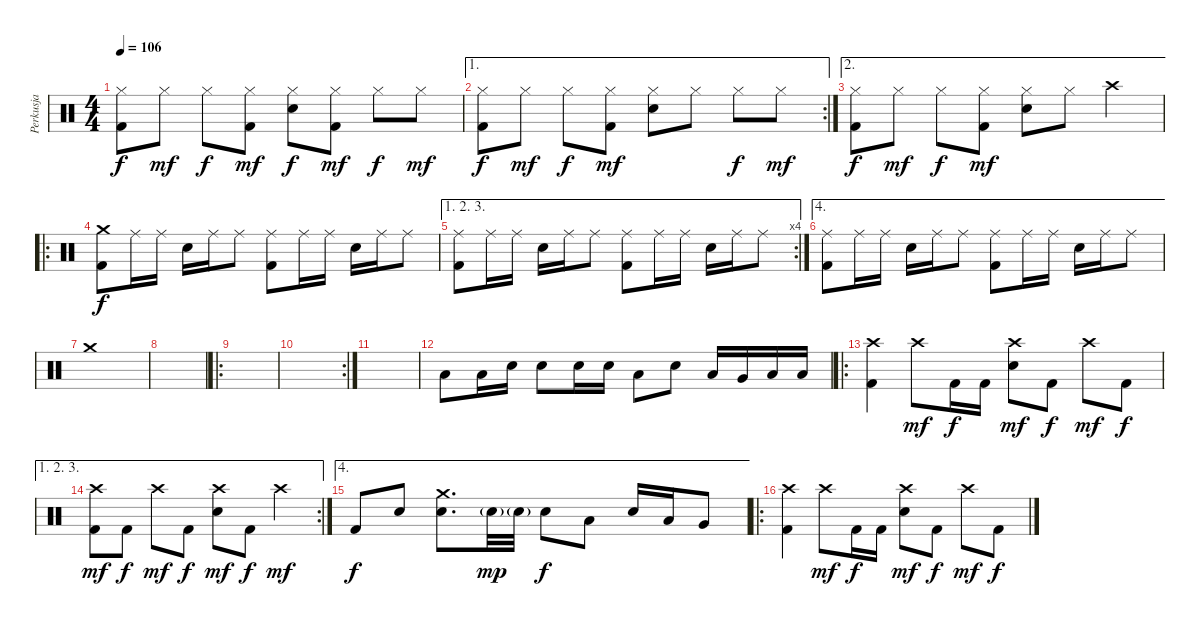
\track ("Perkusja" "Perkusja") {instrument percussion}
\staff {score}
\articulation defaults
\ts (4 4)
\tempo 106
\clef neutral
\ks c
("Hi-Hat (closed)" "Kick (hit) 2").8{dy f} "Hi-Hat (closed)".8{dy mf} "Hi-Hat (closed)".8{dy f} ("Hi-Hat (closed)" "Kick (hit) 2").8{dy mf} ("Hi-Hat (closed)" "Electric Snare (hit)").8{dy f} ("Hi-Hat (closed)" "Kick (hit) 2").8{dy mf} "Hi-Hat (closed)".8{dy f} "Hi-Hat (closed)".8{dy mf} |
\ae 1
\rc 2
("Hi-Hat (closed)" "Kick (hit) 2").8{dy f} "Hi-Hat (closed)".8{dy mf} "Hi-Hat (closed)".8{dy f} ("Hi-Hat (closed)" "Kick (hit) 2").8{dy mf} ("Hi-Hat (closed)" "Electric Snare (hit)").8 "Hi-Hat (closed)".8 "Hi-Hat (closed)".8{dy f} "Hi-Hat (closed)".8{dy mf} |
\ae 2
("Hi-Hat (closed)" "Kick (hit) 2").8{dy f} "Hi-Hat (closed)".8{dy mf} "Hi-Hat (closed)".8{dy f} ("Hi-Hat (closed)" "Kick (hit) 2").8{dy mf} ("Hi-Hat (closed)" "Electric Snare (hit)").8 "Hi-Hat (closed)".8 "Crash high (hit)".4 |
\ro
("Crash medium (hit)" "Kick (hit) 2").8{dy f} "Ride (middle)".16 "Ride (middle)".16 "Electric Snare (hit)".16 "Ride (middle)".16 "Ride (middle)".8 ("Ride (middle)" "Kick (hit) 2").8 "Ride (middle)".16 "Ride (middle)".16 "Electric Snare (hit)".16 "Ride (middle)".16 "Ride (middle)".8 |
\ae (1 2 3)
\rc 4
("Ride (middle)" "Kick (hit) 2").8 "Ride (middle)".16 "Ride (middle)".16 "Electric Snare (hit)".16 "Ride (middle)".16 "Ride (middle)".8 ("Ride (middle)" "Kick (hit) 2").8 "Ride (middle)".16 "Ride (middle)".16 "Electric Snare (hit)".16 "Ride (middle)".16 "Ride (middle)".8 |
\ae 4
("Ride (middle)" "Kick (hit) 2").8 "Ride (middle)".16 "Ride (middle)".16 "Electric Snare (hit)".16 "Ride (middle)".16 "Ride (middle)".8 ("Ride (middle)" "Kick (hit) 2").8 "Ride (middle)".16 "Ride (middle)".16 "Electric Snare (hit)".16 "Ride (middle)".16 "Ride (middle)".8 |
"Crash medium (hit)".1 |
|
\ro
|
\rc 2
|
|
"Low Tom (hit)".8 "Low Tom (hit)".16 "Electric Snare (hit)".16 "Electric Snare (hit)".8 "Electric Snare (hit)".16 "Electric Snare (hit)".16 "Low Tom (hit)".8 "Electric Snare (hit)".8 "Low Tom (hit)".16 "Very Low Tom (hit)".16 "Low Floor Tom (hit)".16 "Low Floor Tom (hit)".16 |
\ro
("Crash high (hit)" "Kick (hit) 2").4 "Crash high (hit)".8{dy mf} "Kick (hit) 2".16{dy f} "Kick (hit) 2".16 ("Crash high (hit)" "Electric Snare (hit)").8{dy mf} "Kick (hit) 2".8{dy f} "Crash high (hit)".8{dy mf} "Kick (hit) 2".8{dy f} |
\ae (1 2 3)
\rc 2
("Crash high (hit)" "Kick (hit) 2").8{dy mf} "Kick (hit) 2".8{dy f} "Crash high (hit)".8{dy mf} "Kick (hit) 2".8{dy f} ("Crash high (hit)" "Electric Snare (hit)").8{dy mf} "Kick (hit) 2".8{dy f} "Crash high (hit)".4{dy mf} |
\ae 4 "Kick (hit) 2".8{dy f} "Electric Snare (hit)".8
("Crash medium (hit)" "Electric Snare (hit)").8{d} "Electric Snare (hit)"{g}.32{dy mp} "Electric Snare (hit)"{g}.32 "Electric Snare (hit)".8{dy f} "Low Tom (hit)".8 "Electric Snare (hit)".16 "Low Tom (hit)".16 "Very Low Tom (hit)".8 |
\ro
("Crash high (hit)" "Kick (hit) 2").4 "Crash high (hit)".8{dy mf} "Kick (hit) 2".16{dy f} "Kick (hit) 2".16 ("Crash high (hit)" "Electric Snare (hit)").8{dy mf} "Kick (hit) 2".8{dy f} "Crash high (hit)".8{dy mf} "Kick (hit) 2".8{dy f}
